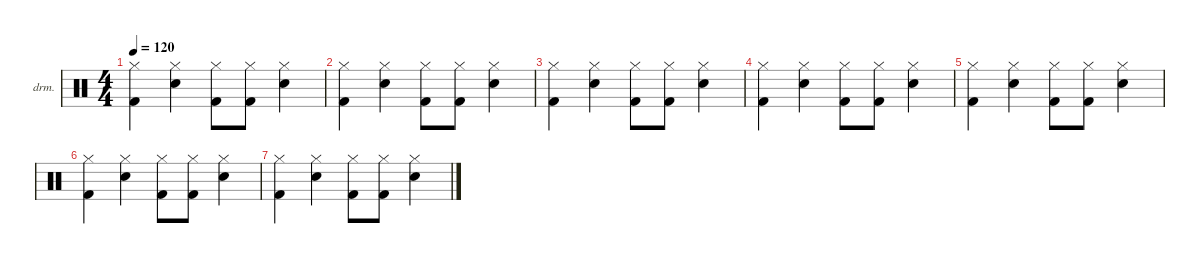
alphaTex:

\defaultSystemsLayout 4
\hideDynamics
\bracketExtendMode nobrackets
\firstSystemTrackNameOrientation horizontal
\otherSystemsTrackNameOrientation horizontal
\track ("Drumkit" "drm.") {instrument percussion}
\staff {score}
\articulation defaults
\ts (4 4)
\tempo 120
\clef neutral
\ks c
("Kick (hit) 2" "Hi-Hat (closed)").4{dy mf beam Down} ("Snare (hit) 2" "Hi-Hat (closed)").4{beam Down} ("Kick (hit) 2" "Hi-Hat (closed)").8{beam Down} ("Kick (hit) 2" "Hi-Hat (closed)").8{beam Down} ("Snare (hit) 2" "Hi-Hat (closed)").4{beam Down} |
("Kick (hit) 2" "Hi-Hat (closed)").4{beam Down} ("Snare (hit) 2" "Hi-Hat (closed)").4{beam Down} ("Kick (hit) 2" "Hi-Hat (closed)").8{beam Down} ("Kick (hit) 2" "Hi-Hat (closed)").8{beam Down} ("Snare (hit) 2" "Hi-Hat (closed)").4{beam Down} |
("Kick (hit) 2" "Hi-Hat (closed)").4{beam Down} ("Snare (hit) 2" "Hi-Hat (closed)").4{beam Down} ("Kick (hit) 2" "Hi-Hat (closed)").8{beam Down} ("Kick (hit) 2" "Hi-Hat (closed)").8{beam Down} ("Snare (hit) 2" "Hi-Hat (closed)").4{beam Down} |
("Kick (hit) 2" "Hi-Hat (closed)").4{beam Down} ("Snare (hit) 2" "Hi-Hat (closed)").4{beam Down} ("Kick (hit) 2" "Hi-Hat (closed)").8{beam Down} ("Kick (hit) 2" "Hi-Hat (closed)").8{beam Down} ("Snare (hit) 2" "Hi-Hat (closed)").4{beam Down} |
("Kick (hit) 2" "Hi-Hat (closed)").4{beam Down} ("Snare (hit) 2" "Hi-Hat (closed)").4{beam Down} ("Kick (hit) 2" "Hi-Hat (closed)").8{beam Down} ("Kick (hit) 2" "Hi-Hat (closed)").8{beam Down} ("Snare (hit) 2" "Hi-Hat (closed)").4{beam Down} |
("Kick (hit) 2" "Hi-Hat (closed)").4{beam Down} ("Snare (hit) 2" "Hi-Hat (closed)").4{beam Down} ("Kick (hit) 2" "Hi-Hat (closed)").8{beam Down} ("Kick (hit) 2" "Hi-Hat (closed)").8{beam Down} ("Snare (hit) 2" "Hi-Hat (closed)").4{beam Down} |
("Kick (hit) 2" "Hi-Hat (closed)").4{beam Down} ("Snare (hit) 2" "Hi-Hat (closed)").4{beam Down} ("Kick (hit) 2" "Hi-Hat (closed)").8{beam Down} ("Kick (hit) 2" "Hi-Hat (closed)").8{beam Down} ("Snare (hit) 2" "Hi-Hat (closed)").4{beam Down}
